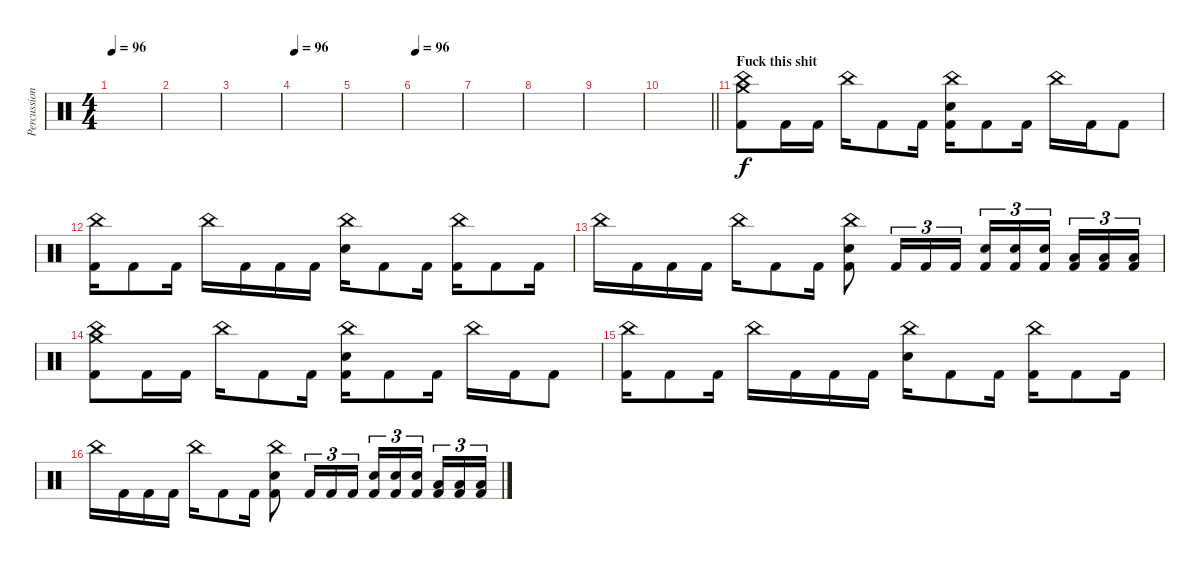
\track ("Percussion" "Percussion") {instrument percussion}
\staff {score}
\articulation defaults
\ts (4 4)
\tempo 96
\clef neutral
\ks c
|
|
|
\tempo 96
|
|
\tempo 96
|
|
|
|
\barLineRight lightlight
|
\section ("" "Fuck this shit")
("Crash medium (hit)" "China (hit)" "Kick (hit) 2").8{dy f} "Kick (hit) 2".16 "Kick (hit) 2".16 "China (hit)".16 "Kick (hit) 2".8 "Kick (hit) 2".16 ("China (hit)" "Electric Snare (hit)" "Kick (hit) 2").16 "Kick (hit) 2".8 "Kick (hit) 2".16 "China (hit)".16 "Kick (hit) 2".16 "Kick (hit) 2".8 |
("China (hit)" "Kick (hit) 2").16 "Kick (hit) 2".8 "Kick (hit) 2".16 "China (hit)".16 "Kick (hit) 2".16 "Kick (hit) 2".16 "Kick (hit) 2".16 ("China (hit)" "Electric Snare (hit)").16 "Kick (hit) 2".8 "Kick (hit) 2".16 ("China (hit)" "Kick (hit) 2").16 "Kick (hit) 2".8 "Kick (hit) 2".16 |
"China (hit)".16 "Kick (hit) 2".16 "Kick (hit) 2".16 "Kick (hit) 2".16 "China (hit)".16 "Kick (hit) 2".8 "Kick (hit) 2".16 ("China (hit)" "Electric Snare (hit)" "Kick (hit) 2").8 "Kick (hit) 2".16{tu (3 2)} "Kick (hit) 2".16{tu (3 2)} "Kick (hit) 2".16{tu (3 2)} ("Electric Snare (hit)" "Kick (hit) 2").16{tu (3 2)} ("Electric Snare (hit)" "Kick (hit) 2").16{tu (3 2)} ("Electric Snare (hit)" "Kick (hit) 2").16{tu (3 2) beam splitsecondary} ("Low Tom (hit)" "Kick (hit) 2").16{tu (3 2)} ("Low Tom (hit)" "Kick (hit) 2").16{tu (3 2)} ("Low Tom (hit)" "Kick (hit) 2").16{tu (3 2)} |
("Crash medium (hit)" "China (hit)" "Kick (hit) 2").8 "Kick (hit) 2".16 "Kick (hit) 2".16 "China (hit)".16 "Kick (hit) 2".8 "Kick (hit) 2".16 ("China (hit)" "Electric Snare (hit)" "Kick (hit) 2").16 "Kick (hit) 2".8 "Kick (hit) 2".16 "China (hit)".16 "Kick (hit) 2".16 "Kick (hit) 2".8 |
("China (hit)" "Kick (hit) 2").16 "Kick (hit) 2".8 "Kick (hit) 2".16 "China (hit)".16 "Kick (hit) 2".16 "Kick (hit) 2".16 "Kick (hit) 2".16 ("China (hit)" "Electric Snare (hit)").16 "Kick (hit) 2".8 "Kick (hit) 2".16 ("China (hit)" "Kick (hit) 2").16 "Kick (hit) 2".8 "Kick (hit) 2".16 |
"China (hit)".16 "Kick (hit) 2".16 "Kick (hit) 2".16 "Kick (hit) 2".16 "China (hit)".16 "Kick (hit) 2".8 "Kick (hit) 2".16 ("China (hit)" "Electric Snare (hit)" "Kick (hit) 2").8 "Kick (hit) 2".16{tu (3 2)} "Kick (hit) 2".16{tu (3 2)} "Kick (hit) 2".16{tu (3 2)} ("Electric Snare (hit)" "Kick (hit) 2").16{tu (3 2)} ("Electric Snare (hit)" "Kick (hit) 2").16{tu (3 2)} ("Electric Snare (hit)" "Kick (hit) 2").16{tu (3 2) beam splitsecondary} ("Low Tom (hit)" "Kick (hit) 2").16{tu (3 2)} ("Low Tom (hit)" "Kick (hit) 2").16{tu (3 2)} ("Low Tom (hit)" "Kick (hit) 2").16{tu (3 2)}
